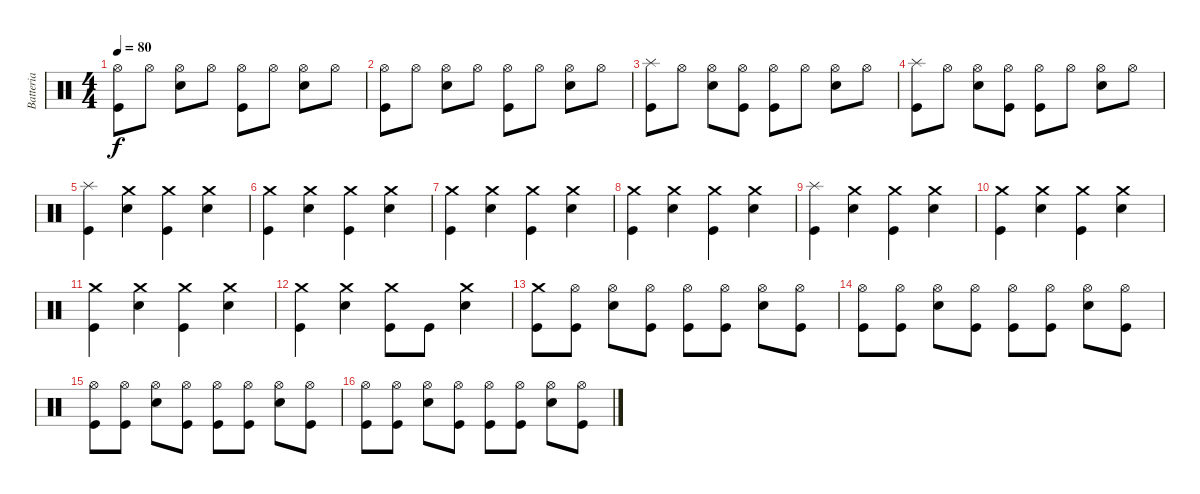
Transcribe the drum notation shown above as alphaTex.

\track ("Batteria" "Batteria") {instrument percussion}
\staff {score}
\articulation defaults
\ts (4 4)
\tempo 80
\clef neutral
\ks c
("Hi-Hat (open)" "Kick (hit)").8{dy f} "Hi-Hat (open)".8 ("Hi-Hat (open)" "Electric Snare (hit)").8 "Hi-Hat (open)".8 ("Hi-Hat (open)" "Kick (hit)").8 "Hi-Hat (open)".8 ("Hi-Hat (open)" "Electric Snare (hit)").8 "Hi-Hat (open)".8 |
("Kick (hit)" "Hi-Hat (open)").8 "Hi-Hat (open)".8 ("Electric Snare (hit)" "Hi-Hat (open)").8 "Hi-Hat (open)".8 ("Kick (hit)" "Hi-Hat (open)").8 "Hi-Hat (open)".8 ("Electric Snare (hit)" "Hi-Hat (open)").8 "Hi-Hat (open)".8 |
("Kick (hit)" "Splash (hit)").8 "Hi-Hat (open)".8 ("Hi-Hat (open)" "Electric Snare (hit)").8 ("Kick (hit)" "Hi-Hat (open)").8 ("Hi-Hat (open)" "Kick (hit)").8 "Hi-Hat (open)".8 ("Hi-Hat (open)" "Electric Snare (hit)").8 "Hi-Hat (open)".8 |
("Kick (hit)" "Splash (hit)").8 "Hi-Hat (open)".8 ("Hi-Hat (open)" "Electric Snare (hit)").8 ("Hi-Hat (open)" "Kick (hit)").8 ("Kick (hit)" "Hi-Hat (open)").8 "Hi-Hat (open)".8 ("Electric Snare (hit)" "Hi-Hat (open)").8 "Hi-Hat (open)".8 |
("Splash (hit)" "Kick (hit)").4 ("Crash medium (hit)" "Electric Snare (hit)").4 ("Crash medium (hit)" "Kick (hit)").4 ("Crash medium (hit)" "Electric Snare (hit)").4 |
("Crash medium (hit)" "Kick (hit)").4 ("Crash medium (hit)" "Electric Snare (hit)").4 ("Crash medium (hit)" "Kick (hit)").4 ("Crash medium (hit)" "Electric Snare (hit)").4 |
("Crash medium (hit)" "Kick (hit)").4 ("Crash medium (hit)" "Electric Snare (hit)").4 ("Crash medium (hit)" "Kick (hit)").4 ("Crash medium (hit)" "Electric Snare (hit)").4 |
("Crash medium (hit)" "Kick (hit)").4 ("Crash medium (hit)" "Electric Snare (hit)").4 ("Crash medium (hit)" "Kick (hit)").4 ("Crash medium (hit)" "Electric Snare (hit)").4 |
("Splash (hit)" "Kick (hit)").4 ("Crash medium (hit)" "Electric Snare (hit)").4 ("Crash medium (hit)" "Kick (hit)").4 ("Crash medium (hit)" "Electric Snare (hit)").4 |
("Crash medium (hit)" "Kick (hit)").4 ("Crash medium (hit)" "Electric Snare (hit)").4 ("Crash medium (hit)" "Kick (hit)").4 ("Crash medium (hit)" "Electric Snare (hit)").4 |
("Crash medium (hit)" "Kick (hit)").4 ("Crash medium (hit)" "Electric Snare (hit)").4 ("Kick (hit)" "Crash medium (hit)").4 ("Crash medium (hit)" "Electric Snare (hit)").4 |
("Crash medium (hit)" "Kick (hit)").4 ("Crash medium (hit)" "Electric Snare (hit)").4 ("Crash medium (hit)" "Kick (hit)").8 "Kick (hit)".8 ("Crash medium (hit)" "Electric Snare (hit)").4 |
("Kick (hit)" "Crash medium (hit)").8 ("Hi-Hat (open)" "Kick (hit)").8 ("Hi-Hat (open)" "Electric Snare (hit)").8 ("Hi-Hat (open)" "Kick (hit)").8 ("Hi-Hat (open)" "Kick (hit)").8 ("Hi-Hat (open)" "Kick (hit)").8 ("Hi-Hat (open)" "Electric Snare (hit)").8 ("Kick (hit)" "Hi-Hat (open)").8 |
("Hi-Hat (open)" "Kick (hit)").8 ("Hi-Hat (open)" "Kick (hit)").8 ("Hi-Hat (open)" "Electric Snare (hit)").8 ("Hi-Hat (open)" "Kick (hit)").8 ("Hi-Hat (open)" "Kick (hit)").8 ("Hi-Hat (open)" "Kick (hit)").8 ("Hi-Hat (open)" "Electric Snare (hit)").8 ("Hi-Hat (open)" "Kick (hit)").8 |
("Hi-Hat (open)" "Kick (hit)").8 ("Hi-Hat (open)" "Kick (hit)").8 ("Hi-Hat (open)" "Electric Snare (hit)").8 ("Hi-Hat (open)" "Kick (hit)").8 ("Hi-Hat (open)" "Kick (hit)").8 ("Hi-Hat (open)" "Kick (hit)").8 ("Hi-Hat (open)" "Electric Snare (hit)").8 ("Hi-Hat (open)" "Kick (hit)").8 |
("Hi-Hat (open)" "Kick (hit)").8 ("Hi-Hat (open)" "Kick (hit)").8 ("Hi-Hat (open)" "Electric Snare (hit)").8 ("Hi-Hat (open)" "Kick (hit)").8 ("Hi-Hat (open)" "Kick (hit)").8 ("Hi-Hat (open)" "Kick (hit)").8 ("Hi-Hat (open)" "Electric Snare (hit)").8 ("Hi-Hat (open)" "Kick (hit)").8
